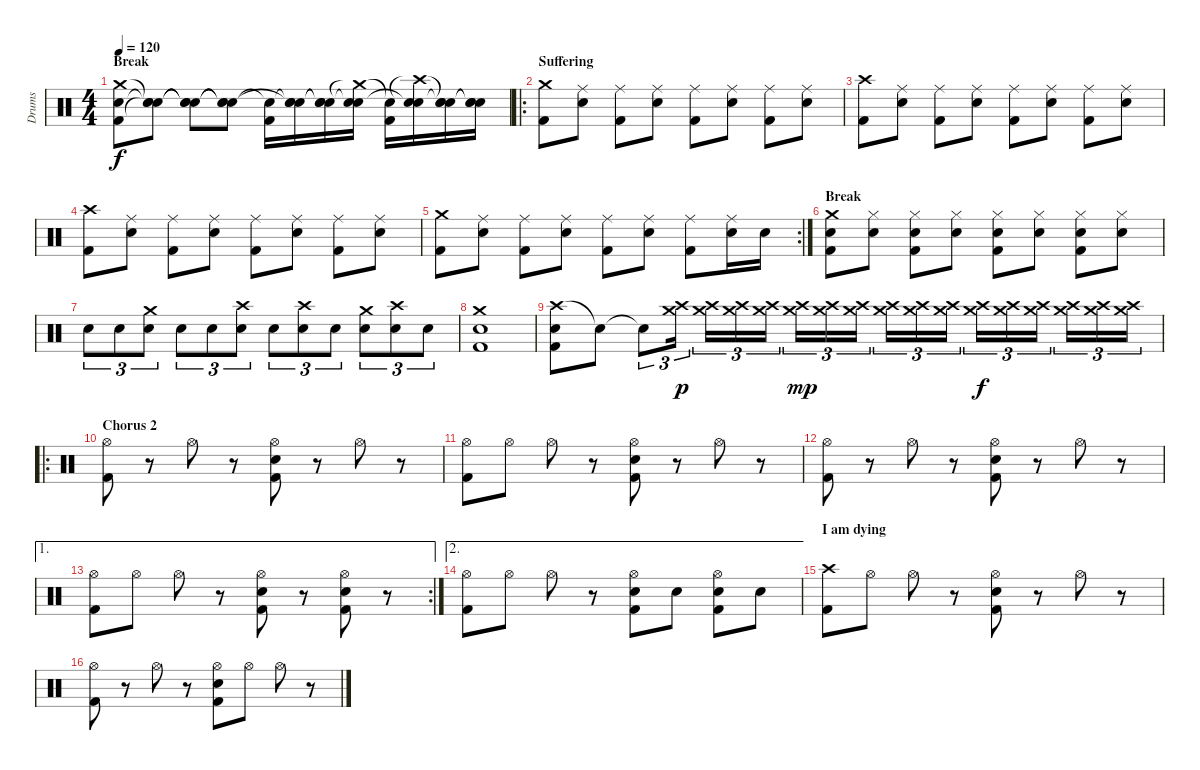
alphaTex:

\track ("Drums" "Drums") {instrument percussion}
\staff {score}
\articulation defaults
\ts (4 4)
\section ("" "Break")
\tempo 120
\clef neutral
\ks c
("Crash medium (hit)" "Snare (hit) 2" "Kick (hit) 2").8{dy f} ("Snare (hit)"{t} "Snare (hit)"{t} "Snare (hit)"{t}).8 ("Snare (hit)"{t} "Snare (hit)"{t} "Snare (hit)"{t}).8 ("Snare (hit)"{t} "Snare (hit)"{t} "Snare (hit)"{t}).8 ("Snare (hit)"{t} "Kick (hit) 2").16 ("Snare (hit)"{t} "Snare (hit) 2" "Snare (hit)"{t}).16 ("Snare (hit)"{t} "Snare (hit) 2" "Snare (hit)"{t}).16 ("Crash medium (hit)"{t} "Snare (hit) 2" "Snare (hit)"{t}).16 ("Snare (hit)"{t} "Kick (hit) 2").16 ("Crash high (hit)"{t} "Snare (hit) 2" "Snare (hit)"{t}).16 ("Snare (hit)"{t} "Snare (hit) 2" "Snare (hit)"{t}).16 ("Snare (hit)"{t} "Snare (hit) 2" "Snare (hit)"{t}).16 |
\ro
\section ("" "Suffering")
("Crash medium (hit)" "Kick (hit) 2").8 ("Ride (middle)" "Snare (hit) 2").8 ("Ride (middle)" "Kick (hit) 2").8 ("Ride (middle)" "Snare (hit) 2").8 ("Ride (middle)" "Kick (hit) 2").8 ("Ride (middle)" "Snare (hit) 2").8 ("Ride (middle)" "Kick (hit) 2").8 ("Ride (middle)" "Snare (hit) 2").8 |
("Crash high (hit)" "Kick (hit) 2").8 ("Ride (middle)" "Snare (hit) 2").8 ("Ride (middle)" "Kick (hit) 2").8 ("Ride (middle)" "Snare (hit) 2").8 ("Ride (middle)" "Kick (hit) 2").8 ("Ride (middle)" "Snare (hit) 2").8 ("Ride (middle)" "Kick (hit) 2").8 ("Ride (middle)" "Snare (hit) 2").8 |
("Crash high (hit)" "Kick (hit) 2").8 ("Ride (middle)" "Snare (hit) 2").8 ("Ride (middle)" "Kick (hit) 2").8 ("Ride (middle)" "Snare (hit) 2").8 ("Ride (middle)" "Kick (hit) 2").8 ("Ride (middle)" "Snare (hit) 2").8 ("Ride (middle)" "Kick (hit) 2").8 ("Ride (middle)" "Snare (hit) 2").8 |
\rc 2
("Crash medium (hit)" "Kick (hit) 2").8 ("Ride (middle)" "Snare (hit) 2").8 ("Ride (middle)" "Kick (hit) 2").8 ("Ride (middle)" "Snare (hit) 2").8 ("Ride (middle)" "Kick (hit) 2").8 ("Ride (middle)" "Snare (hit) 2").8 ("Ride (middle)" "Kick (hit) 2").8 ("Ride (middle)" "Snare (hit) 2").16 "Snare (hit) 2".16 |
\section ("" "Break")
("Crash medium (hit)" "Snare (hit) 2" "Kick (hit) 2").8 ("Hi-Hat (closed)" "Snare (hit) 2").8 ("Hi-Hat (closed)" "Snare (hit) 2" "Kick (hit) 2").8 ("Hi-Hat (closed)" "Snare (hit) 2").8 ("Hi-Hat (closed)" "Snare (hit) 2" "Kick (hit) 2").8 ("Hi-Hat (closed)" "Snare (hit) 2").8 ("Hi-Hat (closed)" "Snare (hit) 2" "Kick (hit) 2").8 ("Hi-Hat (closed)" "Snare (hit) 2").8 |
"Snare (hit) 2".8{tu (3 2)} "Snare (hit) 2".8{tu (3 2)} ("Crash medium (hit)" "Snare (hit) 2").8{tu (3 2)} "Snare (hit) 2".8{tu (3 2)} "Snare (hit) 2".8{tu (3 2)} ("Crash high (hit)" "Snare (hit) 2").8{tu (3 2)} "Snare (hit) 2".8{tu (3 2)} ("Crash high (hit)" "Snare (hit) 2").8{tu (3 2)} "Snare (hit) 2".8{tu (3 2)} ("Crash medium (hit)" "Snare (hit) 2").8{tu (3 2)} ("Crash high (hit)" "Snare (hit) 2").8{tu (3 2)} "Snare (hit) 2".8{tu (3 2)} |
("Crash medium (hit)" "Snare (hit) 2" "Kick (hit) 2").1 |
("Crash high (hit)" "Snare (hit) 2" "Kick (hit) 2").8 "Snare (hit)"{t}.8 "Snare (hit)"{t}.8{tu (3 2)} ("Crash medium (hit)" "Crash high (hit)").16{tu (3 2) dy p} ("Crash medium (hit)" "Crash high (hit)").16{tu (3 2)} ("Crash medium (hit)" "Crash high (hit)").16{tu (3 2)} ("Crash medium (hit)" "Crash high (hit)").16{tu (3 2)} ("Crash medium (hit)" "Crash high (hit)").16{tu (3 2) dy mp} ("Crash medium (hit)" "Crash high (hit)").16{tu (3 2)} ("Crash medium (hit)" "Crash high (hit)").16{tu (3 2)} ("Crash medium (hit)" "Crash high (hit)").16{tu (3 2)} ("Crash medium (hit)" "Crash high (hit)").16{tu (3 2)} ("Crash medium (hit)" "Crash high (hit)").16{tu (3 2)} ("Crash medium (hit)" "Crash high (hit)").16{tu (3 2) dy f} ("Crash medium (hit)" "Crash high (hit)").16{tu (3 2)} ("Crash medium (hit)" "Crash high (hit)").16{tu (3 2)} ("Crash medium (hit)" "Crash high (hit)").16{tu (3 2)} ("Crash medium (hit)" "Crash high (hit)").16{tu (3 2)} ("Crash medium (hit)" "Crash high (hit)").16{tu (3 2)} |
\ro
\section ("" "Chorus 2")
("Hi-Hat (open)" "Kick (hit) 2").8 r.8 "Hi-Hat (open)".8 r.8 ("Hi-Hat (open)" "Snare (hit) 2" "Kick (hit) 2").8 r.8 "Hi-Hat (open)".8 r.8 |
("Hi-Hat (open)" "Kick (hit) 2").8 "Hi-Hat (open)".8 "Hi-Hat (open)".8 r.8 ("Hi-Hat (open)" "Snare (hit) 2" "Kick (hit) 2").8 r.8 "Hi-Hat (open)".8 r.8 |
("Hi-Hat (open)" "Kick (hit) 2").8 r.8 "Hi-Hat (open)".8 r.8 ("Hi-Hat (open)" "Snare (hit) 2" "Kick (hit) 2").8 r.8 "Hi-Hat (open)".8 r.8 |
\ae 1
\rc 2
("Hi-Hat (open)" "Kick (hit) 2").8 "Hi-Hat (open)".8 "Hi-Hat (open)".8 r.8 ("Hi-Hat (open)" "Snare (hit) 2" "Kick (hit) 2").8 r.8 ("Hi-Hat (open)" "Snare (hit) 2" "Kick (hit) 2").8 r.8 |
\ae 2
("Hi-Hat (open)" "Kick (hit) 2").8 "Hi-Hat (open)".8 "Hi-Hat (open)".8 r.8 ("Hi-Hat (open)" "Snare (hit) 2" "Kick (hit) 2").8 "Snare (hit) 2".8 ("Hi-Hat (open)" "Snare (hit) 2" "Kick (hit) 2").8 "Snare (hit) 2".8 |
\section ("" "I am dying")
("Crash high (hit)" "Kick (hit) 2").8 "Hi-Hat (open)".8 "Hi-Hat (open)".8 r.8 ("Hi-Hat (open)" "Snare (hit) 2" "Kick (hit) 2").8 r.8 "Hi-Hat (open)".8 r.8 |
("Hi-Hat (open)" "Kick (hit) 2").8 r.8 "Hi-Hat (open)".8 r.8 ("Hi-Hat (open)" "Snare (hit) 2" "Kick (hit) 2").8 "Hi-Hat (open)".8 "Hi-Hat (open)".8 r.8
